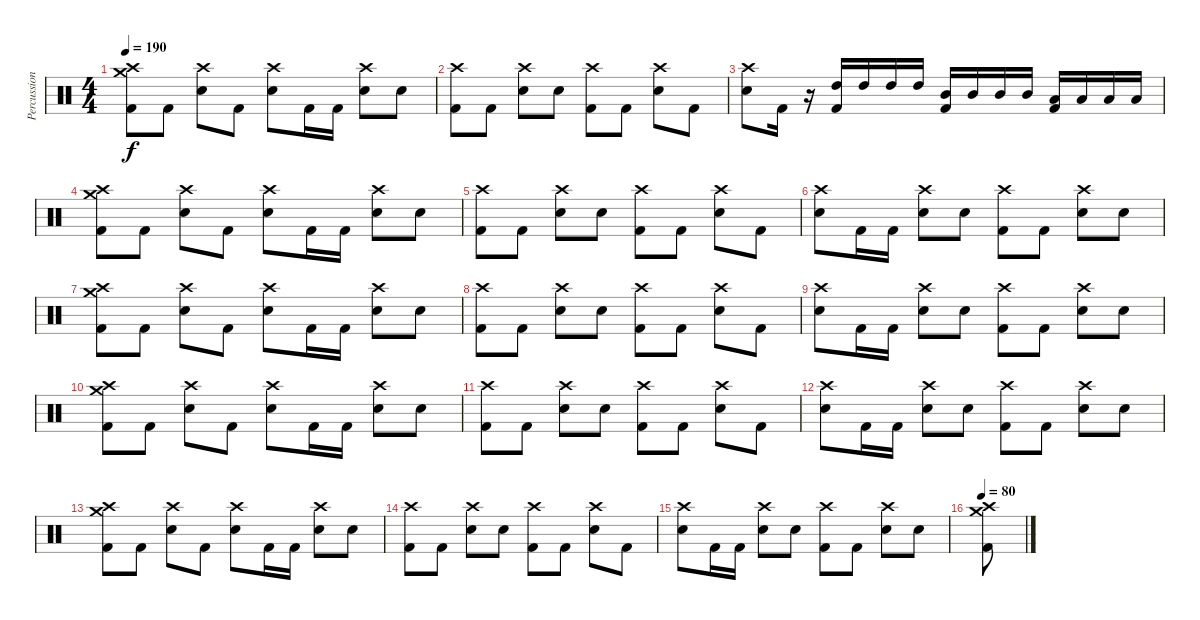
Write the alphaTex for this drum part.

\track ("Percussion" "Percussion") {instrument percussion}
\staff {score}
\articulation defaults
\ts (4 4)
\tempo 190
\clef neutral
\ks c
("Crash high (hit)" "Crash medium (hit)" "Kick (hit) 2").8{dy f} "Kick (hit) 2".8 ("Crash high (hit)" "Snare (hit)").8 "Kick (hit) 2".8 ("Crash high (hit)" "Snare (hit)").8 "Kick (hit) 2".16 "Kick (hit) 2".16 ("Crash high (hit)" "Snare (hit) 2").8 "Snare (hit)".8 |
("Crash high (hit)" "Kick (hit) 2").8 "Kick (hit) 2".8 ("Crash high (hit)" "Snare (hit) 2").8 "Snare (hit)".8 ("Crash high (hit)" "Kick (hit) 2").8 "Kick (hit) 2".8 ("Crash high (hit)" "Snare (hit)").8 "Kick (hit) 2".8 |
("Crash high (hit)" "Snare (hit)").8 "Kick (hit) 2".16 r.16 ("High Tom (hit)" "Kick (hit) 2").16 "High Tom (hit)".16 "High Tom (hit)".16 "High Tom (hit)".16 ("Mid Tom (hit)" "Kick (hit) 2").16 "Mid Tom (hit)".16 "Mid Tom (hit)".16 "Mid Tom (hit)".16 ("Low Tom (hit)" "Kick (hit) 2").16 "Low Tom (hit)".16 "Low Tom (hit)".16 "Low Tom (hit)".16 |
("Crash high (hit)" "Crash medium (hit)" "Kick (hit) 2").8 "Kick (hit) 2".8 ("Crash high (hit)" "Snare (hit)").8 "Kick (hit) 2".8 ("Crash high (hit)" "Snare (hit)").8 "Kick (hit) 2".16 "Kick (hit) 2".16 ("Crash high (hit)" "Snare (hit) 2").8 "Snare (hit)".8 |
("Crash high (hit)" "Kick (hit) 2").8 "Kick (hit) 2".8 ("Crash high (hit)" "Snare (hit) 2").8 "Snare (hit)".8 ("Crash high (hit)" "Kick (hit) 2").8 "Kick (hit) 2".8 ("Crash high (hit)" "Snare (hit)").8 "Kick (hit) 2".8 |
("Crash high (hit)" "Snare (hit)").8 "Kick (hit) 2".16 "Kick (hit) 2".16 ("Crash high (hit)" "Snare (hit) 2").8 "Snare (hit)".8 ("Crash high (hit)" "Kick (hit) 2").8 "Kick (hit) 2".8 ("Crash high (hit)" "Snare (hit) 2").8 "Snare (hit)".8 |
("Crash high (hit)" "Crash medium (hit)" "Kick (hit) 2").8 "Kick (hit) 2".8 ("Crash high (hit)" "Snare (hit)").8 "Kick (hit) 2".8 ("Crash high (hit)" "Snare (hit)").8 "Kick (hit) 2".16 "Kick (hit) 2".16 ("Crash high (hit)" "Snare (hit) 2").8 "Snare (hit)".8 |
("Crash high (hit)" "Kick (hit) 2").8 "Kick (hit) 2".8 ("Crash high (hit)" "Snare (hit) 2").8 "Snare (hit)".8 ("Crash high (hit)" "Kick (hit) 2").8 "Kick (hit) 2".8 ("Crash high (hit)" "Snare (hit)").8 "Kick (hit) 2".8 |
("Crash high (hit)" "Snare (hit)").8 "Kick (hit) 2".16 "Kick (hit) 2".16 ("Crash high (hit)" "Snare (hit) 2").8 "Snare (hit)".8 ("Crash high (hit)" "Kick (hit) 2").8 "Kick (hit) 2".8 ("Crash high (hit)" "Snare (hit) 2").8 "Snare (hit)".8 |
("Crash high (hit)" "Crash medium (hit)" "Kick (hit) 2").8 "Kick (hit) 2".8 ("Crash high (hit)" "Snare (hit)").8 "Kick (hit) 2".8 ("Crash high (hit)" "Snare (hit)").8 "Kick (hit) 2".16 "Kick (hit) 2".16 ("Crash high (hit)" "Snare (hit) 2").8 "Snare (hit)".8 |
("Crash high (hit)" "Kick (hit) 2").8 "Kick (hit) 2".8 ("Crash high (hit)" "Snare (hit) 2").8 "Snare (hit)".8 ("Crash high (hit)" "Kick (hit) 2").8 "Kick (hit) 2".8 ("Crash high (hit)" "Snare (hit)").8 "Kick (hit) 2".8 |
("Crash high (hit)" "Snare (hit)").8 "Kick (hit) 2".16 "Kick (hit) 2".16 ("Crash high (hit)" "Snare (hit) 2").8 "Snare (hit)".8 ("Crash high (hit)" "Kick (hit) 2").8 "Kick (hit) 2".8 ("Crash high (hit)" "Snare (hit) 2").8 "Snare (hit)".8 |
("Crash high (hit)" "Crash medium (hit)" "Kick (hit) 2").8 "Kick (hit) 2".8 ("Crash high (hit)" "Snare (hit)").8 "Kick (hit) 2".8 ("Crash high (hit)" "Snare (hit)").8 "Kick (hit) 2".16 "Kick (hit) 2".16 ("Crash high (hit)" "Snare (hit) 2").8 "Snare (hit)".8 |
("Crash high (hit)" "Kick (hit) 2").8 "Kick (hit) 2".8 ("Crash high (hit)" "Snare (hit) 2").8 "Snare (hit)".8 ("Crash high (hit)" "Kick (hit) 2").8 "Kick (hit) 2".8 ("Crash high (hit)" "Snare (hit)").8 "Kick (hit) 2".8 |
("Crash high (hit)" "Snare (hit)").8 "Kick (hit) 2".16 "Kick (hit) 2".16 ("Crash high (hit)" "Snare (hit) 2").8 "Snare (hit)".8 ("Crash high (hit)" "Kick (hit) 2").8 "Kick (hit) 2".8 ("Crash high (hit)" "Snare (hit) 2").8 "Snare (hit)".8 |
\tempo 80
("Crash high (hit)" "Crash medium (hit)" "Kick (hit) 2").8
